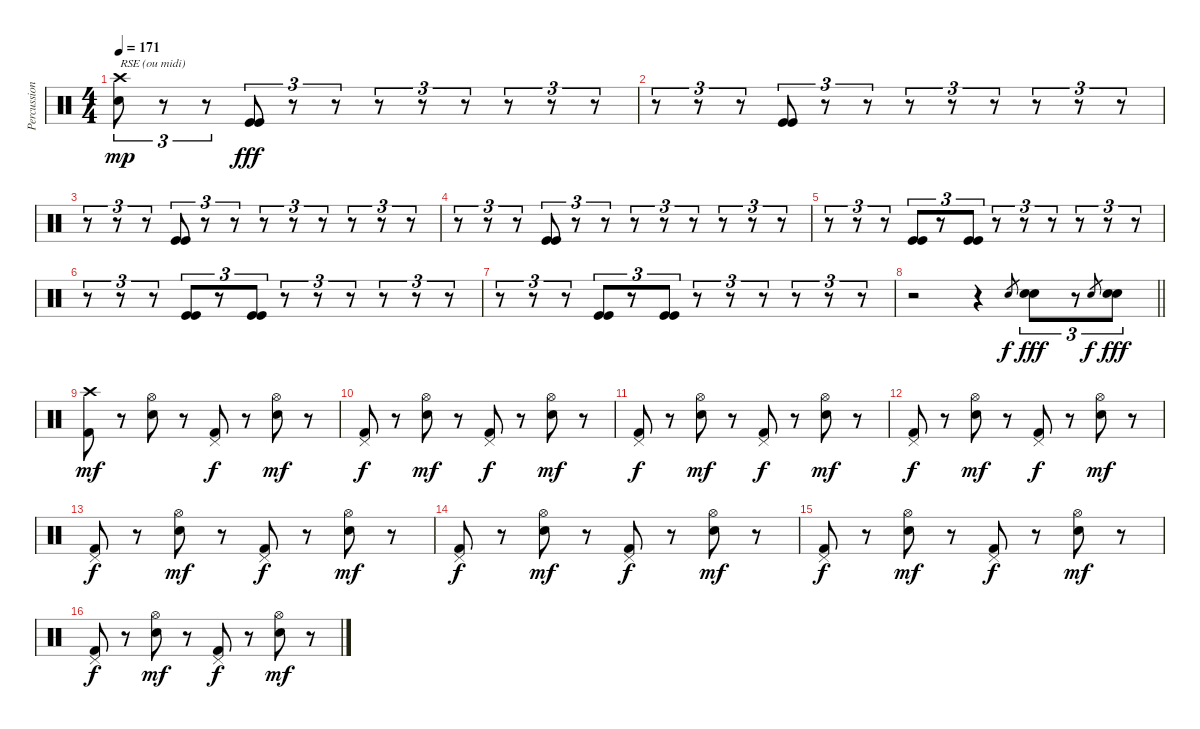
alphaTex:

\track ("Percussions" "Percussion") {instrument percussion}
\staff {score}
\articulation defaults
\ts (4 4)
\section ("" "")
\tempo 171
\clef neutral
\ks c
("Electric Snare (hit)" "Crash high (hit)").8{tu (3 2) txt "RSE (ou midi)" dy mp} r.8{tu (3 2)} r.8{tu (3 2)} ("Kick (hit)" "Kick (hit)").8{tu (3 2) dy fff} r.8{tu (3 2)} r.8{tu (3 2)} r.8{tu (3 2)} r.8{tu (3 2)} r.8{tu (3 2)} r.8{tu (3 2)} r.8{tu (3 2)} r.8{tu (3 2)} |
r.8{tu (3 2)} r.8{tu (3 2)} r.8{tu (3 2)} ("Kick (hit)" "Kick (hit)").8{tu (3 2)} r.8{tu (3 2)} r.8{tu (3 2)} r.8{tu (3 2)} r.8{tu (3 2)} r.8{tu (3 2)} r.8{tu (3 2)} r.8{tu (3 2)} r.8{tu (3 2)} |
r.8{tu (3 2)} r.8{tu (3 2)} r.8{tu (3 2)} ("Kick (hit)" "Kick (hit)").8{tu (3 2)} r.8{tu (3 2)} r.8{tu (3 2)} r.8{tu (3 2)} r.8{tu (3 2)} r.8{tu (3 2)} r.8{tu (3 2)} r.8{tu (3 2)} r.8{tu (3 2)} |
r.8{tu (3 2)} r.8{tu (3 2)} r.8{tu (3 2)} ("Kick (hit)" "Kick (hit)").8{tu (3 2)} r.8{tu (3 2)} r.8{tu (3 2)} r.8{tu (3 2)} r.8{tu (3 2)} r.8{tu (3 2)} r.8{tu (3 2)} r.8{tu (3 2)} r.8{tu (3 2)} |
r.8{tu (3 2)} r.8{tu (3 2)} r.8{tu (3 2)} ("Kick (hit)" "Kick (hit)").8{tu (3 2)} r.8{tu (3 2)} ("Kick (hit)" "Kick (hit)").8{tu (3 2)} r.8{tu (3 2)} r.8{tu (3 2)} r.8{tu (3 2)} r.8{tu (3 2)} r.8{tu (3 2)} r.8{tu (3 2)} |
r.8{tu (3 2)} r.8{tu (3 2)} r.8{tu (3 2)} ("Kick (hit)" "Kick (hit)").8{tu (3 2)} r.8{tu (3 2)} ("Kick (hit)" "Kick (hit)").8{tu (3 2)} r.8{tu (3 2)} r.8{tu (3 2)} r.8{tu (3 2)} r.8{tu (3 2)} r.8{tu (3 2)} r.8{tu (3 2)} |
r.8{tu (3 2)} r.8{tu (3 2)} r.8{tu (3 2)} ("Kick (hit)" "Kick (hit)").8{tu (3 2)} r.8{tu (3 2)} ("Kick (hit)" "Kick (hit)").8{tu (3 2)} r.8{tu (3 2)} r.8{tu (3 2)} r.8{tu (3 2)} r.8{tu (3 2)} r.8{tu (3 2)} r.8{tu (3 2)} |
\barLineRight lightlight
r.2 r.4 "Electric Snare (hit)".8{gr dy f} ("Electric Snare (hit)" "Electric Snare (hit)").8{tu (3 2) dy fff} r.8{tu (3 2)} "Electric Snare (hit)".8{gr dy f} ("Electric Snare (hit)" "Electric Snare (hit)").8{tu (3 2) dy fff} |
\section ("" "")
("Kick (hit) 2" "Crash high (hit)").8{dy mf} r.8 ("Electric Snare (hit)" "Hi-Hat (open)").8 r.8 ("Kick (hit) 2" "Pedal Hi-Hat (hit)").8{dy f} r.8 ("Electric Snare (hit)" "Hi-Hat (open)").8{dy mf} r.8 |
("Kick (hit) 2" "Pedal Hi-Hat (hit)").8{dy f} r.8 ("Electric Snare (hit)" "Hi-Hat (open)").8{dy mf} r.8 ("Kick (hit) 2" "Pedal Hi-Hat (hit)").8{dy f} r.8 ("Electric Snare (hit)" "Hi-Hat (open)").8{dy mf} r.8 |
("Kick (hit) 2" "Pedal Hi-Hat (hit)").8{dy f} r.8 ("Electric Snare (hit)" "Hi-Hat (open)").8{dy mf} r.8 ("Kick (hit) 2" "Pedal Hi-Hat (hit)").8{dy f} r.8 ("Electric Snare (hit)" "Hi-Hat (open)").8{dy mf} r.8 |
("Kick (hit) 2" "Pedal Hi-Hat (hit)").8{dy f} r.8 ("Electric Snare (hit)" "Hi-Hat (open)").8{dy mf} r.8 ("Kick (hit) 2" "Pedal Hi-Hat (hit)").8{dy f} r.8 ("Electric Snare (hit)" "Hi-Hat (open)").8{dy mf} r.8 |
("Kick (hit) 2" "Pedal Hi-Hat (hit)").8{dy f} r.8 ("Electric Snare (hit)" "Hi-Hat (open)").8{dy mf} r.8 ("Kick (hit) 2" "Pedal Hi-Hat (hit)").8{dy f} r.8 ("Electric Snare (hit)" "Hi-Hat (open)").8{dy mf} r.8 |
("Kick (hit) 2" "Pedal Hi-Hat (hit)").8{dy f} r.8 ("Electric Snare (hit)" "Hi-Hat (open)").8{dy mf} r.8 ("Kick (hit) 2" "Pedal Hi-Hat (hit)").8{dy f} r.8 ("Electric Snare (hit)" "Hi-Hat (open)").8{dy mf} r.8 |
("Kick (hit) 2" "Pedal Hi-Hat (hit)").8{dy f} r.8 ("Electric Snare (hit)" "Hi-Hat (open)").8{dy mf} r.8 ("Kick (hit) 2" "Pedal Hi-Hat (hit)").8{dy f} r.8 ("Electric Snare (hit)" "Hi-Hat (open)").8{dy mf} r.8 |
("Kick (hit) 2" "Pedal Hi-Hat (hit)").8{dy f} r.8 ("Electric Snare (hit)" "Hi-Hat (open)").8{dy mf} r.8 ("Kick (hit) 2" "Pedal Hi-Hat (hit)").8{dy f} r.8 ("Electric Snare (hit)" "Hi-Hat (open)").8{dy mf} r.8
